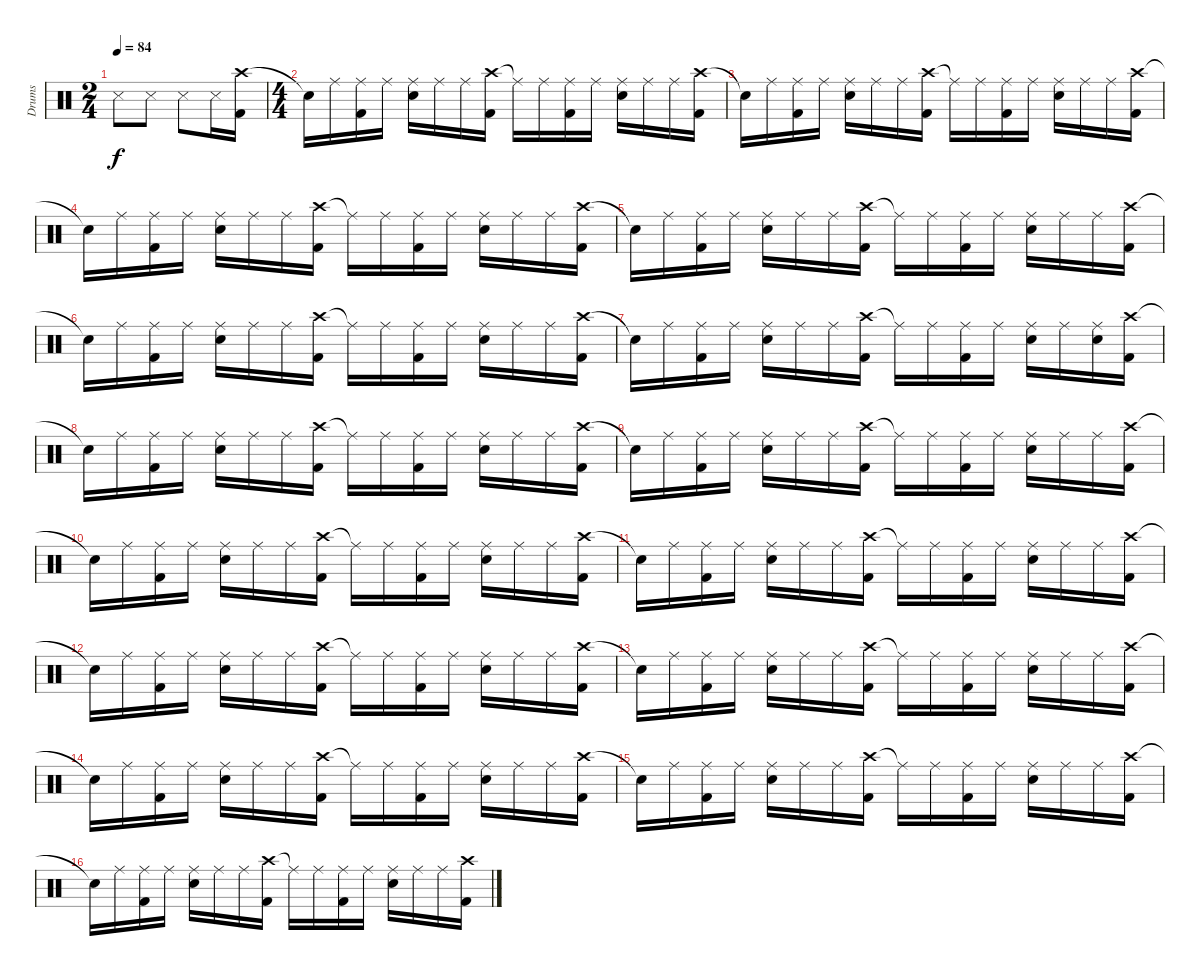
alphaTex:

\track ("Drums" "Drums") {instrument percussion}
\staff {score}
\articulation defaults
\ts (2 4)
\tempo 84
\clef neutral
\ks c "Snare (side stick) 3".8{dy f} "Snare (side stick) 3".8 "Snare (side stick) 3".8 "Snare (side stick) 3".16
("Crash high (hit)" "Kick (hit) 2").16 |
\ts (4 4)
"Snare (hit)"{t}.16 "Ride (middle)".16 ("Ride (middle)" "Kick (hit) 2").16 "Ride (middle)".16 ("Ride (middle)" "Snare (hit) 2").16 "Ride (middle)".16 "Ride (middle)".16 ("Crash high (hit)" "Kick (hit) 2").16 "Ride (middle)"{t}.16 "Ride (middle)".16 ("Ride (middle)" "Kick (hit) 2").16 "Ride (middle)".16 ("Ride (middle)" "Snare (hit) 2").16 "Ride (middle)".16 "Ride (middle)".16 ("Crash high (hit)" "Kick (hit) 2").16 |
"Snare (hit)"{t}.16 "Ride (middle)".16 ("Ride (middle)" "Kick (hit) 2").16 "Ride (middle)".16 ("Ride (middle)" "Snare (hit) 2").16 "Ride (middle)".16 "Ride (middle)".16 ("Crash high (hit)" "Kick (hit) 2").16 "Ride (middle)"{t}.16 "Ride (middle)".16 ("Ride (middle)" "Kick (hit) 2").16 "Ride (middle)".16 ("Ride (middle)" "Snare (hit) 2").16 "Ride (middle)".16 "Ride (middle)".16 ("Crash high (hit)" "Kick (hit) 2").16 |
"Snare (hit)"{t}.16 "Ride (middle)".16 ("Ride (middle)" "Kick (hit) 2").16 "Ride (middle)".16 ("Ride (middle)" "Snare (hit) 2").16 "Ride (middle)".16 "Ride (middle)".16 ("Crash high (hit)" "Kick (hit) 2").16 "Ride (middle)"{t}.16 "Ride (middle)".16 ("Ride (middle)" "Kick (hit) 2").16 "Ride (middle)".16 ("Ride (middle)" "Snare (hit) 2").16 "Ride (middle)".16 "Ride (middle)".16 ("Crash high (hit)" "Kick (hit) 2").16 |
"Snare (hit)"{t}.16 "Ride (middle)".16 ("Ride (middle)" "Kick (hit) 2").16 "Ride (middle)".16 ("Ride (middle)" "Snare (hit) 2").16 "Ride (middle)".16 "Ride (middle)".16 ("Crash high (hit)" "Kick (hit) 2").16 "Ride (middle)"{t}.16 "Ride (middle)".16 ("Ride (middle)" "Kick (hit) 2").16 "Ride (middle)".16 ("Ride (middle)" "Snare (hit) 2").16 "Ride (middle)".16 "Ride (middle)".16 ("Crash high (hit)" "Kick (hit) 2").16 |
"Snare (hit)"{t}.16 "Ride (middle)".16 ("Ride (middle)" "Kick (hit) 2").16 "Ride (middle)".16 ("Ride (middle)" "Snare (hit) 2").16 "Ride (middle)".16 "Ride (middle)".16 ("Crash high (hit)" "Kick (hit) 2").16 "Ride (middle)"{t}.16 "Ride (middle)".16 ("Ride (middle)" "Kick (hit) 2").16 "Ride (middle)".16 ("Ride (middle)" "Snare (hit) 2").16 "Ride (middle)".16 "Ride (middle)".16 ("Crash high (hit)" "Kick (hit) 2").16 |
"Snare (hit)"{t}.16 "Ride (middle)".16 ("Ride (middle)" "Kick (hit) 2").16 "Ride (middle)".16 ("Ride (middle)" "Snare (hit) 2").16 "Ride (middle)".16 "Ride (middle)".16 ("Crash high (hit)" "Kick (hit) 2").16 "Ride (middle)"{t}.16 "Ride (middle)".16 ("Ride (middle)" "Kick (hit) 2").16 "Ride (middle)".16 ("Ride (middle)" "Snare (hit) 2").16 "Ride (middle)".16 ("Ride (middle)" "Snare (hit) 2").16 ("Crash high (hit)" "Kick (hit) 2").16 |
"Snare (hit)"{t}.16 "Ride (middle)".16 ("Ride (middle)" "Kick (hit) 2").16 "Ride (middle)".16 ("Ride (middle)" "Snare (hit) 2").16 "Ride (middle)".16 "Ride (middle)".16 ("Crash high (hit)" "Kick (hit) 2").16 "Ride (middle)"{t}.16 "Ride (middle)".16 ("Ride (middle)" "Kick (hit) 2").16 "Ride (middle)".16 ("Ride (middle)" "Snare (hit) 2").16 "Ride (middle)".16 "Ride (middle)".16 ("Crash high (hit)" "Kick (hit) 2").16 |
"Snare (hit)"{t}.16 "Ride (middle)".16 ("Ride (middle)" "Kick (hit) 2").16 "Ride (middle)".16 ("Ride (middle)" "Snare (hit) 2").16 "Ride (middle)".16 "Ride (middle)".16 ("Crash high (hit)" "Kick (hit) 2").16 "Ride (middle)"{t}.16 "Ride (middle)".16 ("Ride (middle)" "Kick (hit) 2").16 "Ride (middle)".16 ("Ride (middle)" "Snare (hit) 2").16 "Ride (middle)".16 "Ride (middle)".16 ("Crash high (hit)" "Kick (hit) 2").16 |
"Snare (hit)"{t}.16 "Ride (middle)".16 ("Ride (middle)" "Kick (hit) 2").16 "Ride (middle)".16 ("Ride (middle)" "Snare (hit) 2").16 "Ride (middle)".16 "Ride (middle)".16 ("Crash high (hit)" "Kick (hit) 2").16 "Ride (middle)"{t}.16 "Ride (middle)".16 ("Ride (middle)" "Kick (hit) 2").16 "Ride (middle)".16 ("Ride (middle)" "Snare (hit) 2").16 "Ride (middle)".16 "Ride (middle)".16 ("Crash high (hit)" "Kick (hit) 2").16 |
"Snare (hit)"{t}.16 "Ride (middle)".16 ("Ride (middle)" "Kick (hit) 2").16 "Ride (middle)".16 ("Ride (middle)" "Snare (hit) 2").16 "Ride (middle)".16 "Ride (middle)".16 ("Crash high (hit)" "Kick (hit) 2").16 "Ride (middle)"{t}.16 "Ride (middle)".16 ("Ride (middle)" "Kick (hit) 2").16 "Ride (middle)".16 ("Ride (middle)" "Snare (hit) 2").16 "Ride (middle)".16 "Ride (middle)".16 ("Crash high (hit)" "Kick (hit) 2").16 |
"Snare (hit)"{t}.16 "Ride (middle)".16 ("Ride (middle)" "Kick (hit) 2").16 "Ride (middle)".16 ("Ride (middle)" "Snare (hit) 2").16 "Ride (middle)".16 "Ride (middle)".16 ("Crash high (hit)" "Kick (hit) 2").16 "Ride (middle)"{t}.16 "Ride (middle)".16 ("Ride (middle)" "Kick (hit) 2").16 "Ride (middle)".16 ("Ride (middle)" "Snare (hit) 2").16 "Ride (middle)".16 "Ride (middle)".16 ("Crash high (hit)" "Kick (hit) 2").16 |
"Snare (hit)"{t}.16 "Ride (middle)".16 ("Ride (middle)" "Kick (hit) 2").16 "Ride (middle)".16 ("Ride (middle)" "Snare (hit) 2").16 "Ride (middle)".16 "Ride (middle)".16 ("Crash high (hit)" "Kick (hit) 2").16 "Ride (middle)"{t}.16 "Ride (middle)".16 ("Ride (middle)" "Kick (hit) 2").16 "Ride (middle)".16 ("Ride (middle)" "Snare (hit) 2").16 "Ride (middle)".16 "Ride (middle)".16 ("Crash high (hit)" "Kick (hit) 2").16 |
"Snare (hit)"{t}.16 "Ride (middle)".16 ("Ride (middle)" "Kick (hit) 2").16 "Ride (middle)".16 ("Ride (middle)" "Snare (hit) 2").16 "Ride (middle)".16 "Ride (middle)".16 ("Crash high (hit)" "Kick (hit) 2").16 "Ride (middle)"{t}.16 "Ride (middle)".16 ("Ride (middle)" "Kick (hit) 2").16 "Ride (middle)".16 ("Ride (middle)" "Snare (hit) 2").16 "Ride (middle)".16 "Ride (middle)".16 ("Crash high (hit)" "Kick (hit) 2").16 |
"Snare (hit)"{t}.16 "Ride (middle)".16 ("Ride (middle)" "Kick (hit) 2").16 "Ride (middle)".16 ("Ride (middle)" "Snare (hit) 2").16 "Ride (middle)".16 "Ride (middle)".16 ("Crash high (hit)" "Kick (hit) 2").16 "Ride (middle)"{t}.16 "Ride (middle)".16 ("Ride (middle)" "Kick (hit) 2").16 "Ride (middle)".16 ("Ride (middle)" "Snare (hit) 2").16 "Ride (middle)".16 "Ride (middle)".16 ("Crash high (hit)" "Kick (hit) 2").16 |
"Snare (hit)"{t}.16 "Ride (middle)".16 ("Ride (middle)" "Kick (hit) 2").16 "Ride (middle)".16 ("Ride (middle)" "Snare (hit) 2").16 "Ride (middle)".16 "Ride (middle)".16 ("Crash high (hit)" "Kick (hit) 2").16 "Ride (middle)"{t}.16 "Ride (middle)".16 ("Ride (middle)" "Kick (hit) 2").16 "Ride (middle)".16 ("Ride (middle)" "Snare (hit) 2").16 "Ride (middle)".16 "Ride (middle)".16 ("Crash high (hit)" "Kick (hit) 2").16
